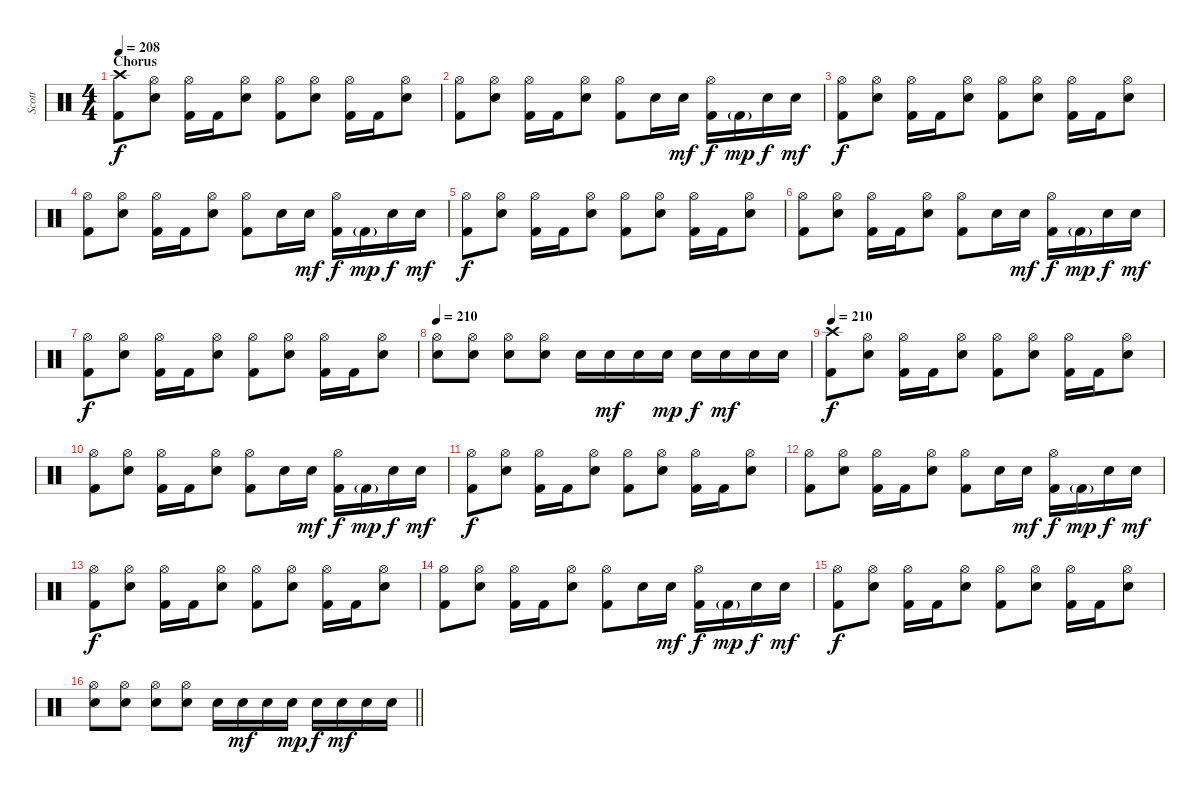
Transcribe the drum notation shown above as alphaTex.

\track ("Scott" "Scott") {instrument percussion}
\staff {score}
\articulation defaults
\ts (4 4)
\section ("" "Chorus")
\tempo 208
\clef neutral
\ks c
("Crash high (hit)" "Kick (hit) 2").8{dy f} ("Hi-Hat (open)" "Electric Snare (hit)").8 ("Hi-Hat (open)" "Kick (hit) 2").16 "Kick (hit) 2".16 ("Hi-Hat (open)" "Electric Snare (hit)").8 ("Hi-Hat (open)" "Kick (hit) 2").8 ("Hi-Hat (open)" "Electric Snare (hit)").8 ("Hi-Hat (open)" "Kick (hit) 2").16 "Kick (hit) 2".16 ("Hi-Hat (open)" "Electric Snare (hit)").8 |
("Hi-Hat (open)" "Kick (hit) 2").8 ("Hi-Hat (open)" "Electric Snare (hit)").8 ("Hi-Hat (open)" "Kick (hit) 2").16 "Kick (hit) 2".16 ("Hi-Hat (open)" "Electric Snare (hit)").8 ("Hi-Hat (open)" "Kick (hit) 2").8 "Electric Snare (hit)".16 "Electric Snare (hit)".16{dy mf} ("Hi-Hat (open)" "Kick (hit) 2").16{dy f} "Kick (hit) 2"{g}.16{dy mp} "Electric Snare (hit)".16{dy f} "Electric Snare (hit)".16{dy mf} |
("Hi-Hat (open)" "Kick (hit) 2").8{dy f} ("Hi-Hat (open)" "Electric Snare (hit)").8 ("Hi-Hat (open)" "Kick (hit) 2").16 "Kick (hit) 2".16 ("Hi-Hat (open)" "Electric Snare (hit)").8 ("Hi-Hat (open)" "Kick (hit) 2").8 ("Hi-Hat (open)" "Electric Snare (hit)").8 ("Hi-Hat (open)" "Kick (hit) 2").16 "Kick (hit) 2".16 ("Hi-Hat (open)" "Electric Snare (hit)").8 |
("Hi-Hat (open)" "Kick (hit) 2").8 ("Hi-Hat (open)" "Electric Snare (hit)").8 ("Hi-Hat (open)" "Kick (hit) 2").16 "Kick (hit) 2".16 ("Hi-Hat (open)" "Electric Snare (hit)").8 ("Hi-Hat (open)" "Kick (hit) 2").8 "Electric Snare (hit)".16 "Electric Snare (hit)".16{dy mf} ("Hi-Hat (open)" "Kick (hit) 2").16{dy f} "Kick (hit) 2"{g}.16{dy mp} "Electric Snare (hit)".16{dy f} "Electric Snare (hit)".16{dy mf} |
("Hi-Hat (open)" "Kick (hit) 2").8{dy f} ("Hi-Hat (open)" "Electric Snare (hit)").8 ("Hi-Hat (open)" "Kick (hit) 2").16 "Kick (hit) 2".16 ("Hi-Hat (open)" "Electric Snare (hit)").8 ("Hi-Hat (open)" "Kick (hit) 2").8 ("Hi-Hat (open)" "Electric Snare (hit)").8 ("Hi-Hat (open)" "Kick (hit) 2").16 "Kick (hit) 2".16 ("Hi-Hat (open)" "Electric Snare (hit)").8 |
("Hi-Hat (open)" "Kick (hit) 2").8 ("Hi-Hat (open)" "Electric Snare (hit)").8 ("Hi-Hat (open)" "Kick (hit) 2").16 "Kick (hit) 2".16 ("Hi-Hat (open)" "Electric Snare (hit)").8 ("Hi-Hat (open)" "Kick (hit) 2").8 "Electric Snare (hit)".16 "Electric Snare (hit)".16{dy mf} ("Hi-Hat (open)" "Kick (hit) 2").16{dy f} "Kick (hit) 2"{g}.16{dy mp} "Electric Snare (hit)".16{dy f} "Electric Snare (hit)".16{dy mf} |
("Hi-Hat (open)" "Kick (hit) 2").8{dy f} ("Hi-Hat (open)" "Electric Snare (hit)").8 ("Hi-Hat (open)" "Kick (hit) 2").16 "Kick (hit) 2".16 ("Hi-Hat (open)" "Electric Snare (hit)").8 ("Hi-Hat (open)" "Kick (hit) 2").8 ("Hi-Hat (open)" "Electric Snare (hit)").8 ("Hi-Hat (open)" "Kick (hit) 2").16 "Kick (hit) 2".16 ("Hi-Hat (open)" "Electric Snare (hit)").8 |
\tempo 210
("Hi-Hat (open)" "Electric Snare (hit)").8 ("Hi-Hat (open)" "Electric Snare (hit)").8 ("Hi-Hat (open)" "Electric Snare (hit)").8 ("Hi-Hat (open)" "Electric Snare (hit)").8 "Electric Snare (hit)".16 "Electric Snare (hit)".16{dy mf} "Electric Snare (hit)".16 "Electric Snare (hit)".16{dy mp} "Electric Snare (hit)".16{dy f} "Electric Snare (hit)".16{dy mf} "Electric Snare (hit)".16 "Electric Snare (hit)".16 |
\tempo 210
("Crash high (hit)" "Kick (hit) 2").8{dy f} ("Hi-Hat (open)" "Electric Snare (hit)").8 ("Hi-Hat (open)" "Kick (hit) 2").16 "Kick (hit) 2".16 ("Hi-Hat (open)" "Electric Snare (hit)").8 ("Hi-Hat (open)" "Kick (hit) 2").8 ("Hi-Hat (open)" "Electric Snare (hit)").8 ("Hi-Hat (open)" "Kick (hit) 2").16 "Kick (hit) 2".16 ("Hi-Hat (open)" "Electric Snare (hit)").8 |
("Hi-Hat (open)" "Kick (hit) 2").8 ("Hi-Hat (open)" "Electric Snare (hit)").8 ("Hi-Hat (open)" "Kick (hit) 2").16 "Kick (hit) 2".16 ("Hi-Hat (open)" "Electric Snare (hit)").8 ("Hi-Hat (open)" "Kick (hit) 2").8 "Electric Snare (hit)".16 "Electric Snare (hit)".16{dy mf} ("Hi-Hat (open)" "Kick (hit) 2").16{dy f} "Kick (hit) 2"{g}.16{dy mp} "Electric Snare (hit)".16{dy f} "Electric Snare (hit)".16{dy mf} |
("Hi-Hat (open)" "Kick (hit) 2").8{dy f} ("Hi-Hat (open)" "Electric Snare (hit)").8 ("Hi-Hat (open)" "Kick (hit) 2").16 "Kick (hit) 2".16 ("Hi-Hat (open)" "Electric Snare (hit)").8 ("Hi-Hat (open)" "Kick (hit) 2").8 ("Hi-Hat (open)" "Electric Snare (hit)").8 ("Hi-Hat (open)" "Kick (hit) 2").16 "Kick (hit) 2".16 ("Hi-Hat (open)" "Electric Snare (hit)").8 |
("Hi-Hat (open)" "Kick (hit) 2").8 ("Hi-Hat (open)" "Electric Snare (hit)").8 ("Hi-Hat (open)" "Kick (hit) 2").16 "Kick (hit) 2".16 ("Hi-Hat (open)" "Electric Snare (hit)").8 ("Hi-Hat (open)" "Kick (hit) 2").8 "Electric Snare (hit)".16 "Electric Snare (hit)".16{dy mf} ("Hi-Hat (open)" "Kick (hit) 2").16{dy f} "Kick (hit) 2"{g}.16{dy mp} "Electric Snare (hit)".16{dy f} "Electric Snare (hit)".16{dy mf} |
("Hi-Hat (open)" "Kick (hit) 2").8{dy f} ("Hi-Hat (open)" "Electric Snare (hit)").8 ("Hi-Hat (open)" "Kick (hit) 2").16 "Kick (hit) 2".16 ("Hi-Hat (open)" "Electric Snare (hit)").8 ("Hi-Hat (open)" "Kick (hit) 2").8 ("Hi-Hat (open)" "Electric Snare (hit)").8 ("Hi-Hat (open)" "Kick (hit) 2").16 "Kick (hit) 2".16 ("Hi-Hat (open)" "Electric Snare (hit)").8 |
("Hi-Hat (open)" "Kick (hit) 2").8 ("Hi-Hat (open)" "Electric Snare (hit)").8 ("Hi-Hat (open)" "Kick (hit) 2").16 "Kick (hit) 2".16 ("Hi-Hat (open)" "Electric Snare (hit)").8 ("Hi-Hat (open)" "Kick (hit) 2").8 "Electric Snare (hit)".16 "Electric Snare (hit)".16{dy mf} ("Hi-Hat (open)" "Kick (hit) 2").16{dy f} "Kick (hit) 2"{g}.16{dy mp} "Electric Snare (hit)".16{dy f} "Electric Snare (hit)".16{dy mf} |
("Hi-Hat (open)" "Kick (hit) 2").8{dy f} ("Hi-Hat (open)" "Electric Snare (hit)").8 ("Hi-Hat (open)" "Kick (hit) 2").16 "Kick (hit) 2".16 ("Hi-Hat (open)" "Electric Snare (hit)").8 ("Hi-Hat (open)" "Kick (hit) 2").8 ("Hi-Hat (open)" "Electric Snare (hit)").8 ("Hi-Hat (open)" "Kick (hit) 2").16 "Kick (hit) 2".16 ("Hi-Hat (open)" "Electric Snare (hit)").8 |
\barLineRight lightlight
("Hi-Hat (open)" "Electric Snare (hit)").8 ("Hi-Hat (open)" "Electric Snare (hit)").8 ("Hi-Hat (open)" "Electric Snare (hit)").8 ("Hi-Hat (open)" "Electric Snare (hit)").8 "Electric Snare (hit)".16 "Electric Snare (hit)".16{dy mf} "Electric Snare (hit)".16 "Electric Snare (hit)".16{dy mp} "Electric Snare (hit)".16{dy f} "Electric Snare (hit)".16{dy mf} "Electric Snare (hit)".16 "Electric Snare (hit)".16
